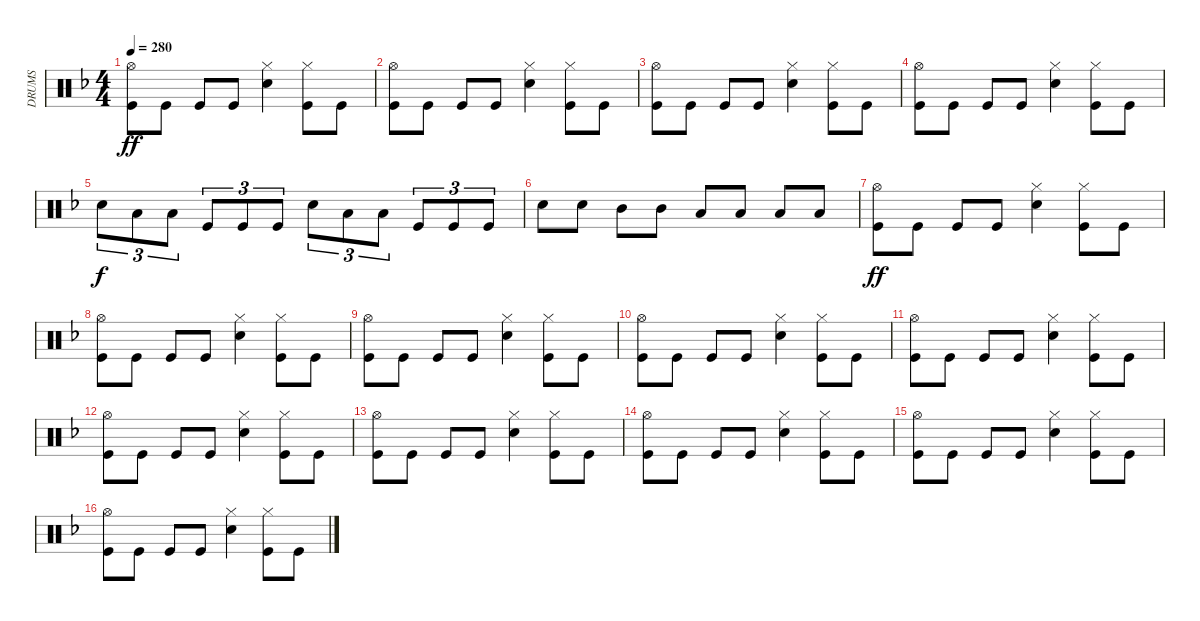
\track ("DRUMS" "DRUMS") {instrument percussion}
\staff {score}
\articulation defaults
\ts (4 4)
\tempo 280
\clef neutral
\ks dminor
("Hi-Hat (open)" "Kick (hit)").8{dy ff} "Kick (hit)".8 "Kick (hit)".8 "Kick (hit)".8 ("Hi-Hat (closed)" "Snare (hit) 2").4 ("Hi-Hat (closed)" "Kick (hit)").8 "Kick (hit)".8 |
("Hi-Hat (open)" "Kick (hit)").8 "Kick (hit)".8 "Kick (hit)".8 "Kick (hit)".8 ("Hi-Hat (closed)" "Snare (hit) 2").4 ("Hi-Hat (closed)" "Kick (hit)").8 "Kick (hit)".8 |
("Hi-Hat (open)" "Kick (hit)").8 "Kick (hit)".8 "Kick (hit)".8 "Kick (hit)".8 ("Hi-Hat (closed)" "Snare (hit) 2").4 ("Hi-Hat (closed)" "Kick (hit)").8 "Kick (hit)".8 |
("Hi-Hat (open)" "Kick (hit)").8 "Kick (hit)".8 "Kick (hit)".8 "Kick (hit)".8 ("Hi-Hat (closed)" "Snare (hit) 2").4 ("Hi-Hat (closed)" "Kick (hit)").8 "Kick (hit)".8 |
"Snare (hit) 2".8{tu (3 2) dy f} "Low Tom (hit)".8{tu (3 2)} "Low Tom (hit)".8{tu (3 2)} "Kick (hit)".8{tu (3 2)} "Kick (hit)".8{tu (3 2)} "Kick (hit)".8{tu (3 2)} "Snare (hit) 2".8{tu (3 2)} "Low Tom (hit)".8{tu (3 2)} "Low Tom (hit)".8{tu (3 2)} "Kick (hit)".8{tu (3 2)} "Kick (hit)".8{tu (3 2)} "Kick (hit)".8{tu (3 2)} |
"Snare (hit) 2".8 "Snare (hit) 2".8 "Mid Tom (hit)".8 "Mid Tom (hit)".8 "Low Tom (hit)".8 "Low Tom (hit)".8 "Low Tom (hit)".8 "Low Tom (hit)".8 |
("Hi-Hat (open)" "Kick (hit)").8{dy ff} "Kick (hit)".8 "Kick (hit)".8 "Kick (hit)".8 ("Hi-Hat (closed)" "Snare (hit) 2").4 ("Hi-Hat (closed)" "Kick (hit)").8 "Kick (hit)".8 |
("Hi-Hat (open)" "Kick (hit)").8 "Kick (hit)".8 "Kick (hit)".8 "Kick (hit)".8 ("Hi-Hat (closed)" "Snare (hit) 2").4 ("Hi-Hat (closed)" "Kick (hit)").8 "Kick (hit)".8 |
("Hi-Hat (open)" "Kick (hit)").8 "Kick (hit)".8 "Kick (hit)".8 "Kick (hit)".8 ("Hi-Hat (closed)" "Snare (hit) 2").4 ("Hi-Hat (closed)" "Kick (hit)").8 "Kick (hit)".8 |
("Hi-Hat (open)" "Kick (hit)").8 "Kick (hit)".8 "Kick (hit)".8 "Kick (hit)".8 ("Hi-Hat (closed)" "Snare (hit) 2").4 ("Hi-Hat (closed)" "Kick (hit)").8 "Kick (hit)".8 |
("Hi-Hat (open)" "Kick (hit)").8 "Kick (hit)".8 "Kick (hit)".8 "Kick (hit)".8 ("Hi-Hat (closed)" "Snare (hit) 2").4 ("Hi-Hat (closed)" "Kick (hit)").8 "Kick (hit)".8 |
("Hi-Hat (open)" "Kick (hit)").8 "Kick (hit)".8 "Kick (hit)".8 "Kick (hit)".8 ("Hi-Hat (closed)" "Snare (hit) 2").4 ("Hi-Hat (closed)" "Kick (hit)").8 "Kick (hit)".8 |
("Hi-Hat (open)" "Kick (hit)").8 "Kick (hit)".8 "Kick (hit)".8 "Kick (hit)".8 ("Hi-Hat (closed)" "Snare (hit) 2").4 ("Hi-Hat (closed)" "Kick (hit)").8 "Kick (hit)".8 |
("Hi-Hat (open)" "Kick (hit)").8 "Kick (hit)".8 "Kick (hit)".8 "Kick (hit)".8 ("Hi-Hat (closed)" "Snare (hit) 2").4 ("Hi-Hat (closed)" "Kick (hit)").8 "Kick (hit)".8 |
("Hi-Hat (open)" "Kick (hit)").8 "Kick (hit)".8 "Kick (hit)".8 "Kick (hit)".8 ("Hi-Hat (closed)" "Snare (hit) 2").4 ("Hi-Hat (closed)" "Kick (hit)").8 "Kick (hit)".8 |
("Hi-Hat (open)" "Kick (hit)").8 "Kick (hit)".8 "Kick (hit)".8 "Kick (hit)".8 ("Hi-Hat (closed)" "Snare (hit) 2").4 ("Hi-Hat (closed)" "Kick (hit)").8 "Kick (hit)".8
